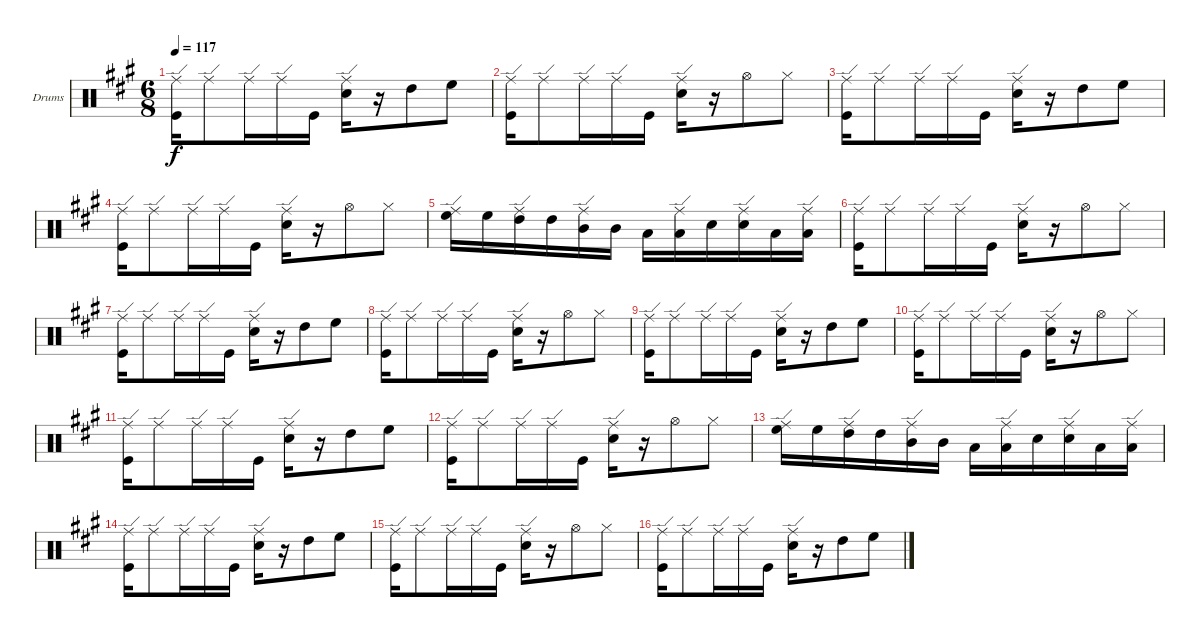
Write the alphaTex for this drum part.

\bracketExtendMode groupsimilarinstruments
\firstSystemTrackNameOrientation horizontal
\otherSystemsTrackNameOrientation horizontal
\track ("Drumkit" "Drums") {instrument percussion}
\staff {score}
\articulation defaults
\ts (6 8)
\tempo 117
\clef neutral
\ks a
("Ride (edge)" "Kick (hit)").16{dy f} "Ride (edge)".8 "Ride (edge)".16 "Ride (edge)".16 "Kick (hit)".16 ("Ride (edge)" "Snare (hit) 2").16 r.16 "High Tom (hit)".8 "High Floor Tom (hit)".8 |
("Ride (edge)" "Kick (hit)").16 "Ride (edge)".8 "Ride (edge)".16 "Ride (edge)".16 "Kick (hit)".16 ("Ride (edge)" "Snare (hit) 2").16 r.16 "Hi-Hat (open)".8 "Hi-Hat (closed)".8 |
("Ride (edge)" "Kick (hit)").16 "Ride (edge)".8 "Ride (edge)".16 "Ride (edge)".16 "Kick (hit)".16 ("Ride (edge)" "Snare (hit) 2").16 r.16 "High Tom (hit)".8 "High Floor Tom (hit)".8 |
("Ride (edge)" "Kick (hit)").16 "Ride (edge)".8 "Ride (edge)".16 "Ride (edge)".16 "Kick (hit)".16 ("Ride (edge)" "Snare (hit) 2").16 r.16 "Hi-Hat (open)".8 "Hi-Hat (closed)".8 |
("Ride (edge)" "High Floor Tom (hit)").16 "High Floor Tom (hit)".16 ("Ride (edge)" "High Tom (hit)").16 "High Tom (hit)".16 ("Ride (edge)" "Mid Tom (hit)").16 "Mid Tom (hit)".16 "Low Tom (hit)".16 ("Ride (edge)" "Low Tom (hit)").16 "Snare (hit) 2".16 ("Ride (edge)" "Snare (hit) 2").16 "Low Tom (hit)".16 ("Ride (edge)" "Low Tom (hit)").16 |
("Ride (edge)" "Kick (hit)").16 "Ride (edge)".8 "Ride (edge)".16 "Ride (edge)".16 "Kick (hit)".16 ("Ride (edge)" "Snare (hit) 2").16 r.16 "Hi-Hat (open)".8 "Hi-Hat (closed)".8 |
("Ride (edge)" "Kick (hit)").16 "Ride (edge)".8 "Ride (edge)".16 "Ride (edge)".16 "Kick (hit)".16 ("Ride (edge)" "Snare (hit) 2").16 r.16 "High Tom (hit)".8 "High Floor Tom (hit)".8 |
("Ride (edge)" "Kick (hit)").16 "Ride (edge)".8 "Ride (edge)".16 "Ride (edge)".16 "Kick (hit)".16 ("Ride (edge)" "Snare (hit) 2").16 r.16 "Hi-Hat (open)".8 "Hi-Hat (closed)".8 |
("Ride (edge)" "Kick (hit)").16 "Ride (edge)".8 "Ride (edge)".16 "Ride (edge)".16 "Kick (hit)".16 ("Ride (edge)" "Snare (hit) 2").16 r.16 "High Tom (hit)".8 "High Floor Tom (hit)".8 |
("Ride (edge)" "Kick (hit)").16 "Ride (edge)".8 "Ride (edge)".16 "Ride (edge)".16 "Kick (hit)".16 ("Ride (edge)" "Snare (hit) 2").16 r.16 "Hi-Hat (open)".8 "Hi-Hat (closed)".8 |
("Ride (edge)" "Kick (hit)").16 "Ride (edge)".8 "Ride (edge)".16 "Ride (edge)".16 "Kick (hit)".16 ("Ride (edge)" "Snare (hit) 2").16 r.16 "High Tom (hit)".8 "High Floor Tom (hit)".8 |
("Ride (edge)" "Kick (hit)").16 "Ride (edge)".8 "Ride (edge)".16 "Ride (edge)".16 "Kick (hit)".16 ("Ride (edge)" "Snare (hit) 2").16 r.16 "Hi-Hat (open)".8 "Hi-Hat (closed)".8 |
("Ride (edge)" "High Floor Tom (hit)").16 "High Floor Tom (hit)".16 ("Ride (edge)" "High Tom (hit)").16 "High Tom (hit)".16 ("Ride (edge)" "Mid Tom (hit)").16 "Mid Tom (hit)".16 "Low Tom (hit)".16 ("Ride (edge)" "Low Tom (hit)").16 "Snare (hit) 2".16 ("Ride (edge)" "Snare (hit) 2").16 "Low Tom (hit)".16 ("Ride (edge)" "Low Tom (hit)").16 |
("Ride (edge)" "Kick (hit)").16 "Ride (edge)".8 "Ride (edge)".16 "Ride (edge)".16 "Kick (hit)".16 ("Ride (edge)" "Snare (hit) 2").16 r.16 "High Tom (hit)".8 "High Floor Tom (hit)".8 |
("Ride (edge)" "Kick (hit)").16 "Ride (edge)".8 "Ride (edge)".16 "Ride (edge)".16 "Kick (hit)".16 ("Ride (edge)" "Snare (hit) 2").16 r.16 "Hi-Hat (open)".8 "Hi-Hat (closed)".8 |
("Ride (edge)" "Kick (hit)").16 "Ride (edge)".8 "Ride (edge)".16 "Ride (edge)".16 "Kick (hit)".16 ("Ride (edge)" "Snare (hit) 2").16 r.16 "High Tom (hit)".8 "High Floor Tom (hit)".8
